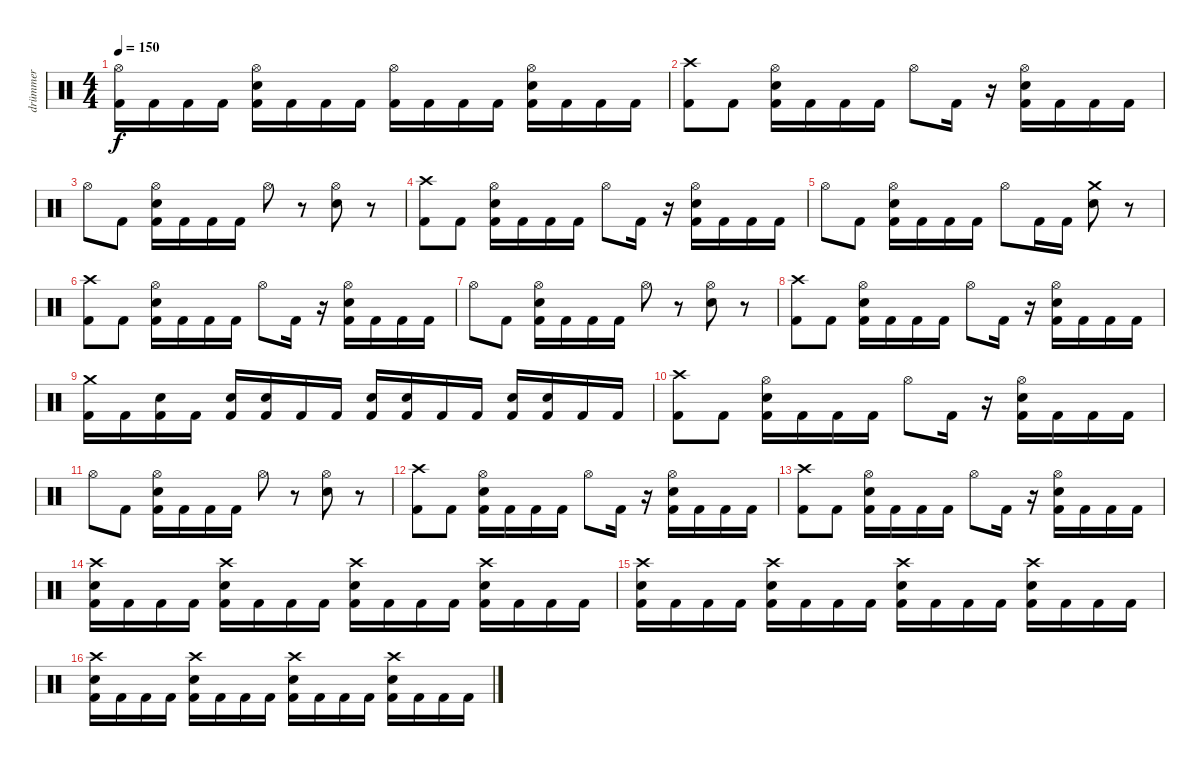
\track ("drümmer" "drümmer") {instrument percussion}
\staff {score}
\articulation defaults
\ts (4 4)
\tempo 150
\clef neutral
\ks c
("Hi-Hat (open)" "Kick (hit) 2").16{dy f} "Kick (hit) 2".16 "Kick (hit) 2".16 "Kick (hit) 2".16 ("Hi-Hat (open)" "Snare (hit) 2" "Kick (hit) 2").16 "Kick (hit) 2".16 "Kick (hit) 2".16 "Kick (hit) 2".16 ("Hi-Hat (open)" "Kick (hit) 2").16 "Kick (hit) 2".16 "Kick (hit) 2".16 "Kick (hit) 2".16 ("Hi-Hat (open)" "Snare (hit) 2" "Kick (hit) 2").16 "Kick (hit) 2".16 "Kick (hit) 2".16 "Kick (hit) 2".16 |
("Crash high (hit)" "Kick (hit) 2").8 "Kick (hit) 2".8 ("Hi-Hat (open)" "Snare (hit) 2" "Kick (hit) 2").16 "Kick (hit) 2".16 "Kick (hit) 2".16 "Kick (hit) 2".16 "Hi-Hat (open)".8 "Kick (hit) 2".16 r.16 ("Hi-Hat (open)" "Snare (hit) 2" "Kick (hit) 2").16 "Kick (hit) 2".16 "Kick (hit) 2".16 "Kick (hit) 2".16 |
"Hi-Hat (open)".8 "Kick (hit) 2".8 ("Hi-Hat (open)" "Snare (hit) 2" "Kick (hit) 2").16 "Kick (hit) 2".16 "Kick (hit) 2".16 "Kick (hit) 2".16 "Hi-Hat (open)".8 r.8 ("Hi-Hat (open)" "Snare (hit) 2").8 r.8 |
("Crash high (hit)" "Kick (hit) 2").8 "Kick (hit) 2".8 ("Hi-Hat (open)" "Snare (hit) 2" "Kick (hit) 2").16 "Kick (hit) 2".16 "Kick (hit) 2".16 "Kick (hit) 2".16 "Hi-Hat (open)".8 "Kick (hit) 2".16 r.16 ("Hi-Hat (open)" "Snare (hit) 2" "Kick (hit) 2").16 "Kick (hit) 2".16 "Kick (hit) 2".16 "Kick (hit) 2".16 |
"Hi-Hat (open)".8 "Kick (hit) 2".8 ("Hi-Hat (open)" "Snare (hit) 2" "Kick (hit) 2").16 "Kick (hit) 2".16 "Kick (hit) 2".16 "Kick (hit) 2".16 "Hi-Hat (open)".8 "Kick (hit) 2".16 "Kick (hit) 2".16 ("Crash medium (hit)" "Snare (hit) 2").8 r.8 |
("Crash high (hit)" "Kick (hit) 2").8 "Kick (hit) 2".8 ("Hi-Hat (open)" "Snare (hit) 2" "Kick (hit) 2").16 "Kick (hit) 2".16 "Kick (hit) 2".16 "Kick (hit) 2".16 "Hi-Hat (open)".8 "Kick (hit) 2".16 r.16 ("Hi-Hat (open)" "Snare (hit) 2" "Kick (hit) 2").16 "Kick (hit) 2".16 "Kick (hit) 2".16 "Kick (hit) 2".16 |
"Hi-Hat (open)".8 "Kick (hit) 2".8 ("Hi-Hat (open)" "Snare (hit) 2" "Kick (hit) 2").16 "Kick (hit) 2".16 "Kick (hit) 2".16 "Kick (hit) 2".16 "Hi-Hat (open)".8 r.8 ("Hi-Hat (open)" "Snare (hit) 2").8 r.8 |
("Crash high (hit)" "Kick (hit) 2").8 "Kick (hit) 2".8 ("Hi-Hat (open)" "Snare (hit) 2" "Kick (hit) 2").16 "Kick (hit) 2".16 "Kick (hit) 2".16 "Kick (hit) 2".16 "Hi-Hat (open)".8 "Kick (hit) 2".16 r.16 ("Hi-Hat (open)" "Snare (hit) 2" "Kick (hit) 2").16 "Kick (hit) 2".16 "Kick (hit) 2".16 "Kick (hit) 2".16 |
("Crash medium (hit)" "Kick (hit) 2").16 "Kick (hit) 2".16 ("Snare (hit) 2" "Kick (hit) 2").16 "Kick (hit) 2".16 ("Snare (hit) 2" "Kick (hit) 2").16 ("Snare (hit) 2" "Kick (hit) 2").16 "Kick (hit) 2".16 "Kick (hit) 2".16 ("Snare (hit) 2" "Kick (hit) 2").16 ("Snare (hit) 2" "Kick (hit) 2").16 "Kick (hit) 2".16 "Kick (hit) 2".16 ("Snare (hit) 2" "Kick (hit) 2").16 ("Snare (hit) 2" "Kick (hit) 2").16 "Kick (hit) 2".16 "Kick (hit) 2".16 |
("Crash high (hit)" "Kick (hit) 2").8 "Kick (hit) 2".8 ("Hi-Hat (open)" "Snare (hit) 2" "Kick (hit) 2").16 "Kick (hit) 2".16 "Kick (hit) 2".16 "Kick (hit) 2".16 "Hi-Hat (open)".8 "Kick (hit) 2".16 r.16 ("Hi-Hat (open)" "Snare (hit) 2" "Kick (hit) 2").16 "Kick (hit) 2".16 "Kick (hit) 2".16 "Kick (hit) 2".16 |
"Hi-Hat (open)".8 "Kick (hit) 2".8 ("Hi-Hat (open)" "Snare (hit) 2" "Kick (hit) 2").16 "Kick (hit) 2".16 "Kick (hit) 2".16 "Kick (hit) 2".16 "Hi-Hat (open)".8 r.8 ("Hi-Hat (open)" "Snare (hit) 2").8 r.8 |
("Crash high (hit)" "Kick (hit) 2").8 "Kick (hit) 2".8 ("Hi-Hat (open)" "Snare (hit) 2" "Kick (hit) 2").16 "Kick (hit) 2".16 "Kick (hit) 2".16 "Kick (hit) 2".16 "Hi-Hat (open)".8 "Kick (hit) 2".16 r.16 ("Hi-Hat (open)" "Snare (hit) 2" "Kick (hit) 2").16 "Kick (hit) 2".16 "Kick (hit) 2".16 "Kick (hit) 2".16 |
("Crash high (hit)" "Kick (hit) 2").8 "Kick (hit) 2".8 ("Hi-Hat (open)" "Snare (hit) 2" "Kick (hit) 2").16 "Kick (hit) 2".16 "Kick (hit) 2".16 "Kick (hit) 2".16 "Hi-Hat (open)".8 "Kick (hit) 2".16 r.16 ("Hi-Hat (open)" "Snare (hit) 2" "Kick (hit) 2").16 "Kick (hit) 2".16 "Kick (hit) 2".16 "Kick (hit) 2".16 |
("Crash high (hit)" "Snare (hit) 2" "Kick (hit) 2").16 "Kick (hit) 2".16 "Kick (hit) 2".16 "Kick (hit) 2".16 ("Crash high (hit)" "Snare (hit) 2" "Kick (hit) 2").16 "Kick (hit) 2".16 "Kick (hit) 2".16 "Kick (hit) 2".16 ("Crash high (hit)" "Snare (hit) 2" "Kick (hit) 2").16 "Kick (hit) 2".16 "Kick (hit) 2".16 "Kick (hit) 2".16 ("Crash high (hit)" "Snare (hit) 2" "Kick (hit) 2").16 "Kick (hit) 2".16 "Kick (hit) 2".16 "Kick (hit) 2".16 |
("Crash high (hit)" "Snare (hit) 2" "Kick (hit) 2").16 "Kick (hit) 2".16 "Kick (hit) 2".16 "Kick (hit) 2".16 ("Crash high (hit)" "Snare (hit) 2" "Kick (hit) 2").16 "Kick (hit) 2".16 "Kick (hit) 2".16 "Kick (hit) 2".16 ("Crash high (hit)" "Snare (hit) 2" "Kick (hit) 2").16 "Kick (hit) 2".16 "Kick (hit) 2".16 "Kick (hit) 2".16 ("Crash high (hit)" "Snare (hit) 2" "Kick (hit) 2").16 "Kick (hit) 2".16 "Kick (hit) 2".16 "Kick (hit) 2".16 |
("Crash high (hit)" "Snare (hit) 2" "Kick (hit) 2").16 "Kick (hit) 2".16 "Kick (hit) 2".16 "Kick (hit) 2".16 ("Crash high (hit)" "Snare (hit) 2" "Kick (hit) 2").16 "Kick (hit) 2".16 "Kick (hit) 2".16 "Kick (hit) 2".16 ("Crash high (hit)" "Snare (hit) 2" "Kick (hit) 2").16 "Kick (hit) 2".16 "Kick (hit) 2".16 "Kick (hit) 2".16 ("Crash high (hit)" "Snare (hit) 2" "Kick (hit) 2").16 "Kick (hit) 2".16 "Kick (hit) 2".16 "Kick (hit) 2".16
